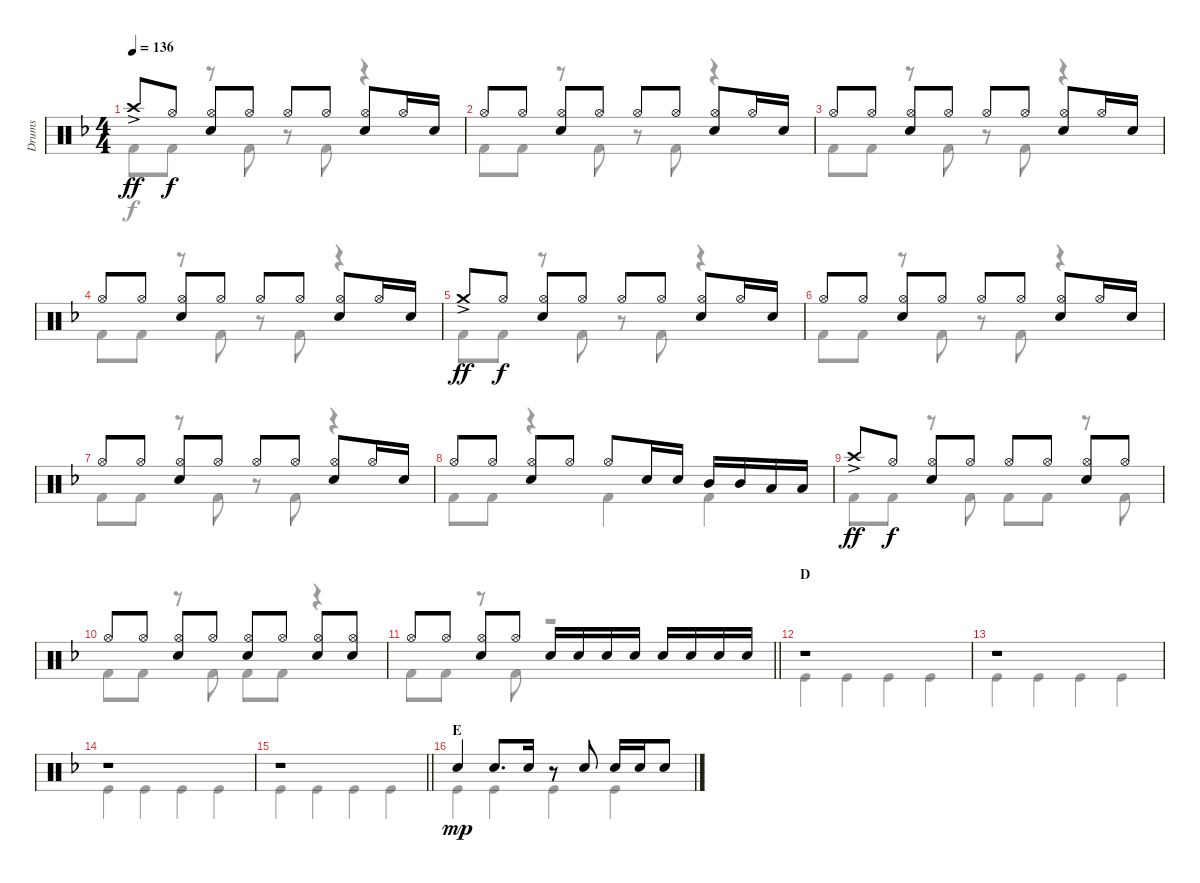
\track ("Drums" "Drums") {instrument percussion}
\staff {score}
\articulation defaults
\voice
\ts (4 4)
\tempo 136
\clef neutral
\ks f "Crash high (hit)"{ac}.8{dy ff} "Hi-Hat (open)".8{dy f}
("Hi-Hat (open)" "Snare (hit) 2").8 "Hi-Hat (open)".8 "Hi-Hat (open)".8 "Hi-Hat (open)".8 ("Hi-Hat (open)" "Snare (hit) 2").8 "Hi-Hat (open)".16 "Snare (hit) 2".16 |
"Hi-Hat (open)".8 "Hi-Hat (open)".8 ("Hi-Hat (open)" "Snare (hit) 2").8 "Hi-Hat (open)".8 "Hi-Hat (open)".8 "Hi-Hat (open)".8 ("Hi-Hat (open)" "Snare (hit) 2").8 "Hi-Hat (open)".16 "Snare (hit) 2".16 |
"Hi-Hat (open)".8 "Hi-Hat (open)".8 ("Hi-Hat (open)" "Snare (hit) 2").8 "Hi-Hat (open)".8 "Hi-Hat (open)".8 "Hi-Hat (open)".8 ("Hi-Hat (open)" "Snare (hit) 2").8 "Hi-Hat (open)".16 "Snare (hit) 2".16 |
"Hi-Hat (open)".8 "Hi-Hat (open)".8 ("Hi-Hat (open)" "Snare (hit) 2").8 "Hi-Hat (open)".8 "Hi-Hat (open)".8 "Hi-Hat (open)".8 ("Hi-Hat (open)" "Snare (hit) 2").8 "Hi-Hat (open)".16 "Snare (hit) 2".16 |
"Crash medium (hit)"{ac}.8{dy ff} "Hi-Hat (open)".8{dy f} ("Hi-Hat (open)" "Snare (hit) 2").8 "Hi-Hat (open)".8 "Hi-Hat (open)".8 "Hi-Hat (open)".8 ("Hi-Hat (open)" "Snare (hit) 2").8 "Hi-Hat (open)".16 "Snare (hit) 2".16 |
"Hi-Hat (open)".8 "Hi-Hat (open)".8 ("Hi-Hat (open)" "Snare (hit) 2").8 "Hi-Hat (open)".8 "Hi-Hat (open)".8 "Hi-Hat (open)".8 ("Hi-Hat (open)" "Snare (hit) 2").8 "Hi-Hat (open)".16 "Snare (hit) 2".16 |
"Hi-Hat (open)".8 "Hi-Hat (open)".8 ("Hi-Hat (open)" "Snare (hit) 2").8 "Hi-Hat (open)".8 "Hi-Hat (open)".8 "Hi-Hat (open)".8 ("Hi-Hat (open)" "Snare (hit) 2").8 "Hi-Hat (open)".16 "Snare (hit) 2".16 |
"Hi-Hat (open)".8 "Hi-Hat (open)".8 ("Hi-Hat (open)" "Snare (hit) 2").8 "Hi-Hat (open)".8 "Hi-Hat (open)".8 "Snare (hit) 2".16 "Snare (hit) 2".16 "Mid Tom (hit)".16 "Mid Tom (hit)".16 "Low Tom (hit)".16 "Low Tom (hit)".16 |
"Crash high (hit)"{ac}.8{dy ff} "Hi-Hat (open)".8{dy f} ("Hi-Hat (open)" "Snare (hit) 2").8 "Hi-Hat (open)".8 "Hi-Hat (open)".8 "Hi-Hat (open)".8 ("Hi-Hat (open)" "Snare (hit) 2").8 "Hi-Hat (open)".8 |
"Hi-Hat (open)".8 "Hi-Hat (open)".8 ("Hi-Hat (open)" "Snare (hit) 2").8 "Hi-Hat (open)".8 ("Hi-Hat (open)" "Snare (hit) 2").8 "Hi-Hat (open)".8 ("Hi-Hat (open)" "Snare (hit) 2").8 ("Hi-Hat (open)" "Snare (hit) 2").8 |
\barLineRight lightlight "Hi-Hat (open)".8 "Hi-Hat (open)".8
("Hi-Hat (open)" "Snare (hit) 2").8 "Hi-Hat (open)".8 "Snare (hit) 2".16 "Snare (hit) 2".16 "Snare (hit) 2".16 "Snare (hit) 2".16 "Snare (hit) 2".16 "Snare (hit) 2".16 "Snare (hit) 2".16 "Snare (hit) 2".16 |
\section ("" "D")
r.1 |
r.1 |
r.1 |
\barLineRight lightlight
r.1 |
\section ("" "E")
"Electric Snare (hit)".4{dy mp} "Electric Snare (hit)".8{d} "Electric Snare (hit)".16 r.8 "Electric Snare (hit)".8 "Electric Snare (hit)".16 "Electric Snare (hit)".16 "Electric Snare (hit)".8
\voice
\clef neutral
\ottava regular
\simile none
\ks f "Kick (hit) 2".8{dy f} "Kick (hit) 2".8
r.8 "Kick (hit) 2".8 r.8 "Kick (hit) 2".8 r.4 |
"Kick (hit) 2".8 "Kick (hit) 2".8 r.8 "Kick (hit) 2".8 r.8 "Kick (hit) 2".8 r.4 |
"Kick (hit) 2".8 "Kick (hit) 2".8 r.8 "Kick (hit) 2".8 r.8 "Kick (hit) 2".8 r.4 |
"Kick (hit) 2".8 "Kick (hit) 2".8 r.8 "Kick (hit) 2".8 r.8 "Kick (hit) 2".8 r.4 |
"Kick (hit) 2".8 "Kick (hit) 2".8 r.8 "Kick (hit) 2".8 r.8 "Kick (hit) 2".8 r.4 |
"Kick (hit) 2".8 "Kick (hit) 2".8 r.8 "Kick (hit) 2".8 r.8 "Kick (hit) 2".8 r.4 |
"Kick (hit) 2".8 "Kick (hit) 2".8 r.8 "Kick (hit) 2".8 r.8 "Kick (hit) 2".8 r.4 |
"Kick (hit) 2".8 "Kick (hit) 2".8 r.4 "Kick (hit) 2".4 "Kick (hit) 2".4 |
"Kick (hit) 2".8 "Kick (hit) 2".8 r.8 "Kick (hit) 2".8 "Kick (hit) 2".8 "Kick (hit) 2".8 r.8 "Kick (hit) 2".8 |
"Kick (hit) 2".8 "Kick (hit) 2".8 r.8 "Kick (hit) 2".8 "Kick (hit) 2".8 "Kick (hit) 2".8 r.4 |
\barLineRight lightlight "Kick (hit) 2".8 "Kick (hit) 2".8
r.8 "Kick (hit) 2".8 r.2 |
"Kick (hit)".4 "Kick (hit)".4 "Kick (hit)".4 "Kick (hit)".4 |
"Kick (hit)".4 "Kick (hit)".4 "Kick (hit)".4 "Kick (hit)".4 |
"Kick (hit)".4 "Kick (hit)".4 "Kick (hit)".4 "Kick (hit)".4 |
\barLineRight lightlight "Kick (hit)".4 "Kick (hit)".4 "Kick (hit)".4 "Kick (hit)".4
|
"Kick (hit)".4 "Kick (hit)".4 "Kick (hit)".4 "Kick (hit)".4
